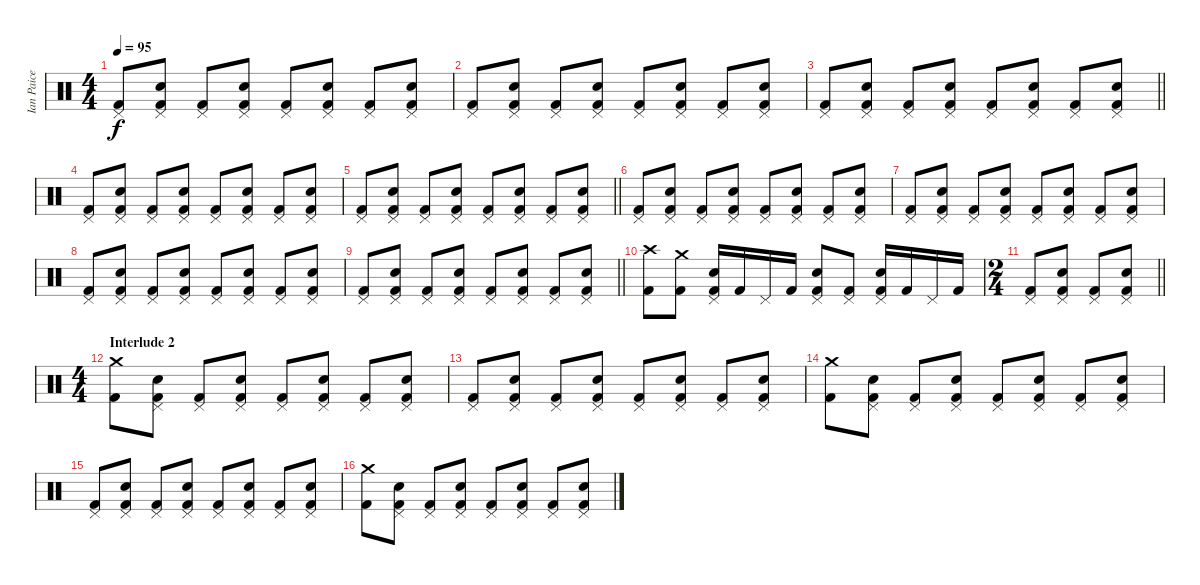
\track ("Ian Paice - Drums" "Ian Paice ") {instrument percussion}
\staff {score}
\articulation defaults
\ts (4 4)
\tempo 95
\clef neutral
\ks c
("Kick (hit) 2" "Pedal Hi-Hat (hit)").8{dy f} ("Kick (hit) 2" "Pedal Hi-Hat (hit)" "Electric Snare (hit)").8 ("Kick (hit) 2" "Pedal Hi-Hat (hit)").8 ("Kick (hit) 2" "Pedal Hi-Hat (hit)" "Electric Snare (hit)").8 ("Kick (hit) 2" "Pedal Hi-Hat (hit)").8 ("Kick (hit) 2" "Pedal Hi-Hat (hit)" "Electric Snare (hit)").8 ("Kick (hit) 2" "Pedal Hi-Hat (hit)").8 ("Kick (hit) 2" "Pedal Hi-Hat (hit)" "Electric Snare (hit)").8 |
("Kick (hit) 2" "Pedal Hi-Hat (hit)").8 ("Kick (hit) 2" "Pedal Hi-Hat (hit)" "Electric Snare (hit)").8 ("Kick (hit) 2" "Pedal Hi-Hat (hit)").8 ("Kick (hit) 2" "Pedal Hi-Hat (hit)" "Electric Snare (hit)").8 ("Kick (hit) 2" "Pedal Hi-Hat (hit)").8 ("Kick (hit) 2" "Pedal Hi-Hat (hit)" "Electric Snare (hit)").8 ("Kick (hit) 2" "Pedal Hi-Hat (hit)").8 ("Kick (hit) 2" "Pedal Hi-Hat (hit)" "Electric Snare (hit)").8 |
\barLineRight lightlight
("Kick (hit) 2" "Pedal Hi-Hat (hit)").8 ("Kick (hit) 2" "Pedal Hi-Hat (hit)" "Electric Snare (hit)").8 ("Kick (hit) 2" "Pedal Hi-Hat (hit)").8 ("Kick (hit) 2" "Pedal Hi-Hat (hit)" "Electric Snare (hit)").8 ("Kick (hit) 2" "Pedal Hi-Hat (hit)").8 ("Kick (hit) 2" "Pedal Hi-Hat (hit)" "Electric Snare (hit)").8 ("Kick (hit) 2" "Pedal Hi-Hat (hit)").8 ("Kick (hit) 2" "Pedal Hi-Hat (hit)" "Electric Snare (hit)").8 |
("Kick (hit) 2" "Pedal Hi-Hat (hit)").8 ("Kick (hit) 2" "Pedal Hi-Hat (hit)" "Electric Snare (hit)").8 ("Kick (hit) 2" "Pedal Hi-Hat (hit)").8 ("Kick (hit) 2" "Pedal Hi-Hat (hit)" "Electric Snare (hit)").8 ("Kick (hit) 2" "Pedal Hi-Hat (hit)").8 ("Kick (hit) 2" "Pedal Hi-Hat (hit)" "Electric Snare (hit)").8 ("Kick (hit) 2" "Pedal Hi-Hat (hit)").8 ("Kick (hit) 2" "Pedal Hi-Hat (hit)" "Electric Snare (hit)").8 |
\barLineRight lightlight
("Kick (hit) 2" "Pedal Hi-Hat (hit)").8 ("Kick (hit) 2" "Pedal Hi-Hat (hit)" "Electric Snare (hit)").8 ("Kick (hit) 2" "Pedal Hi-Hat (hit)").8 ("Kick (hit) 2" "Pedal Hi-Hat (hit)" "Electric Snare (hit)").8 ("Kick (hit) 2" "Pedal Hi-Hat (hit)").8 ("Kick (hit) 2" "Pedal Hi-Hat (hit)" "Electric Snare (hit)").8 ("Kick (hit) 2" "Pedal Hi-Hat (hit)").8 ("Kick (hit) 2" "Pedal Hi-Hat (hit)" "Electric Snare (hit)").8 |
("Kick (hit) 2" "Pedal Hi-Hat (hit)").8 ("Kick (hit) 2" "Pedal Hi-Hat (hit)" "Electric Snare (hit)").8 ("Kick (hit) 2" "Pedal Hi-Hat (hit)").8 ("Kick (hit) 2" "Pedal Hi-Hat (hit)" "Electric Snare (hit)").8 ("Kick (hit) 2" "Pedal Hi-Hat (hit)").8 ("Kick (hit) 2" "Pedal Hi-Hat (hit)" "Electric Snare (hit)").8 ("Kick (hit) 2" "Pedal Hi-Hat (hit)").8 ("Kick (hit) 2" "Pedal Hi-Hat (hit)" "Electric Snare (hit)").8 |
("Kick (hit) 2" "Pedal Hi-Hat (hit)").8 ("Kick (hit) 2" "Pedal Hi-Hat (hit)" "Electric Snare (hit)").8 ("Kick (hit) 2" "Pedal Hi-Hat (hit)").8 ("Kick (hit) 2" "Pedal Hi-Hat (hit)" "Electric Snare (hit)").8 ("Kick (hit) 2" "Pedal Hi-Hat (hit)").8 ("Kick (hit) 2" "Pedal Hi-Hat (hit)" "Electric Snare (hit)").8 ("Kick (hit) 2" "Pedal Hi-Hat (hit)").8 ("Kick (hit) 2" "Pedal Hi-Hat (hit)" "Electric Snare (hit)").8 |
("Kick (hit) 2" "Pedal Hi-Hat (hit)").8 ("Kick (hit) 2" "Pedal Hi-Hat (hit)" "Electric Snare (hit)").8 ("Kick (hit) 2" "Pedal Hi-Hat (hit)").8 ("Kick (hit) 2" "Pedal Hi-Hat (hit)" "Electric Snare (hit)").8 ("Kick (hit) 2" "Pedal Hi-Hat (hit)").8 ("Kick (hit) 2" "Pedal Hi-Hat (hit)" "Electric Snare (hit)").8 ("Kick (hit) 2" "Pedal Hi-Hat (hit)").8 ("Kick (hit) 2" "Pedal Hi-Hat (hit)" "Electric Snare (hit)").8 |
\barLineRight lightlight
("Kick (hit) 2" "Pedal Hi-Hat (hit)").8 ("Kick (hit) 2" "Pedal Hi-Hat (hit)" "Electric Snare (hit)").8 ("Kick (hit) 2" "Pedal Hi-Hat (hit)").8 ("Kick (hit) 2" "Pedal Hi-Hat (hit)" "Electric Snare (hit)").8 ("Kick (hit) 2" "Pedal Hi-Hat (hit)").8 ("Kick (hit) 2" "Pedal Hi-Hat (hit)" "Electric Snare (hit)").8 ("Kick (hit) 2" "Pedal Hi-Hat (hit)").8 ("Kick (hit) 2" "Pedal Hi-Hat (hit)" "Electric Snare (hit)").8 |
("Kick (hit) 2" "Crash high (hit)").8 ("Kick (hit) 2" "Crash medium (hit)").8 ("Kick (hit) 2" "Pedal Hi-Hat (hit)" "Electric Snare (hit)").16 "Kick (hit) 2".16 "Pedal Hi-Hat (hit)".16 "Kick (hit) 2".16 ("Kick (hit) 2" "Pedal Hi-Hat (hit)" "Electric Snare (hit)").8 ("Kick (hit) 2" "Pedal Hi-Hat (hit)").8 ("Kick (hit) 2" "Pedal Hi-Hat (hit)" "Electric Snare (hit)").16 "Kick (hit) 2".16 "Pedal Hi-Hat (hit)".16 "Kick (hit) 2".16 |
\ts (2 4)
\barLineRight lightlight
("Kick (hit) 2" "Pedal Hi-Hat (hit)").8 ("Kick (hit) 2" "Pedal Hi-Hat (hit)" "Electric Snare (hit)").8 ("Kick (hit) 2" "Pedal Hi-Hat (hit)").8 ("Kick (hit) 2" "Pedal Hi-Hat (hit)" "Electric Snare (hit)").8 |
\ts (4 4)
\section ("" "Interlude 2")
("Kick (hit) 2" "Crash medium (hit)").8 ("Kick (hit) 2" "Pedal Hi-Hat (hit)" "Electric Snare (hit)").8 ("Kick (hit) 2" "Pedal Hi-Hat (hit)").8 ("Kick (hit) 2" "Pedal Hi-Hat (hit)" "Electric Snare (hit)").8 ("Kick (hit) 2" "Pedal Hi-Hat (hit)").8 ("Kick (hit) 2" "Pedal Hi-Hat (hit)" "Electric Snare (hit)").8 ("Kick (hit) 2" "Pedal Hi-Hat (hit)").8 ("Kick (hit) 2" "Pedal Hi-Hat (hit)" "Electric Snare (hit)").8 |
("Kick (hit) 2" "Pedal Hi-Hat (hit)").8 ("Kick (hit) 2" "Pedal Hi-Hat (hit)" "Electric Snare (hit)").8 ("Kick (hit) 2" "Pedal Hi-Hat (hit)").8 ("Kick (hit) 2" "Pedal Hi-Hat (hit)" "Electric Snare (hit)").8 ("Kick (hit) 2" "Pedal Hi-Hat (hit)").8 ("Kick (hit) 2" "Pedal Hi-Hat (hit)" "Electric Snare (hit)").8 ("Kick (hit) 2" "Pedal Hi-Hat (hit)").8 ("Kick (hit) 2" "Pedal Hi-Hat (hit)" "Electric Snare (hit)").8 |
("Kick (hit) 2" "Crash medium (hit)").8 ("Kick (hit) 2" "Pedal Hi-Hat (hit)" "Electric Snare (hit)").8 ("Kick (hit) 2" "Pedal Hi-Hat (hit)").8 ("Kick (hit) 2" "Pedal Hi-Hat (hit)" "Electric Snare (hit)").8 ("Kick (hit) 2" "Pedal Hi-Hat (hit)").8 ("Kick (hit) 2" "Pedal Hi-Hat (hit)" "Electric Snare (hit)").8 ("Kick (hit) 2" "Pedal Hi-Hat (hit)").8 ("Kick (hit) 2" "Pedal Hi-Hat (hit)" "Electric Snare (hit)").8 |
("Kick (hit) 2" "Pedal Hi-Hat (hit)").8 ("Kick (hit) 2" "Pedal Hi-Hat (hit)" "Electric Snare (hit)").8 ("Kick (hit) 2" "Pedal Hi-Hat (hit)").8 ("Kick (hit) 2" "Pedal Hi-Hat (hit)" "Electric Snare (hit)").8 ("Kick (hit) 2" "Pedal Hi-Hat (hit)").8 ("Kick (hit) 2" "Pedal Hi-Hat (hit)" "Electric Snare (hit)").8 ("Kick (hit) 2" "Pedal Hi-Hat (hit)").8 ("Kick (hit) 2" "Pedal Hi-Hat (hit)" "Electric Snare (hit)").8 |
("Kick (hit) 2" "Crash medium (hit)").8 ("Kick (hit) 2" "Pedal Hi-Hat (hit)" "Electric Snare (hit)").8 ("Kick (hit) 2" "Pedal Hi-Hat (hit)").8 ("Kick (hit) 2" "Pedal Hi-Hat (hit)" "Electric Snare (hit)").8 ("Kick (hit) 2" "Pedal Hi-Hat (hit)").8 ("Kick (hit) 2" "Pedal Hi-Hat (hit)" "Electric Snare (hit)").8 ("Kick (hit) 2" "Pedal Hi-Hat (hit)").8 ("Kick (hit) 2" "Pedal Hi-Hat (hit)" "Electric Snare (hit)").8
